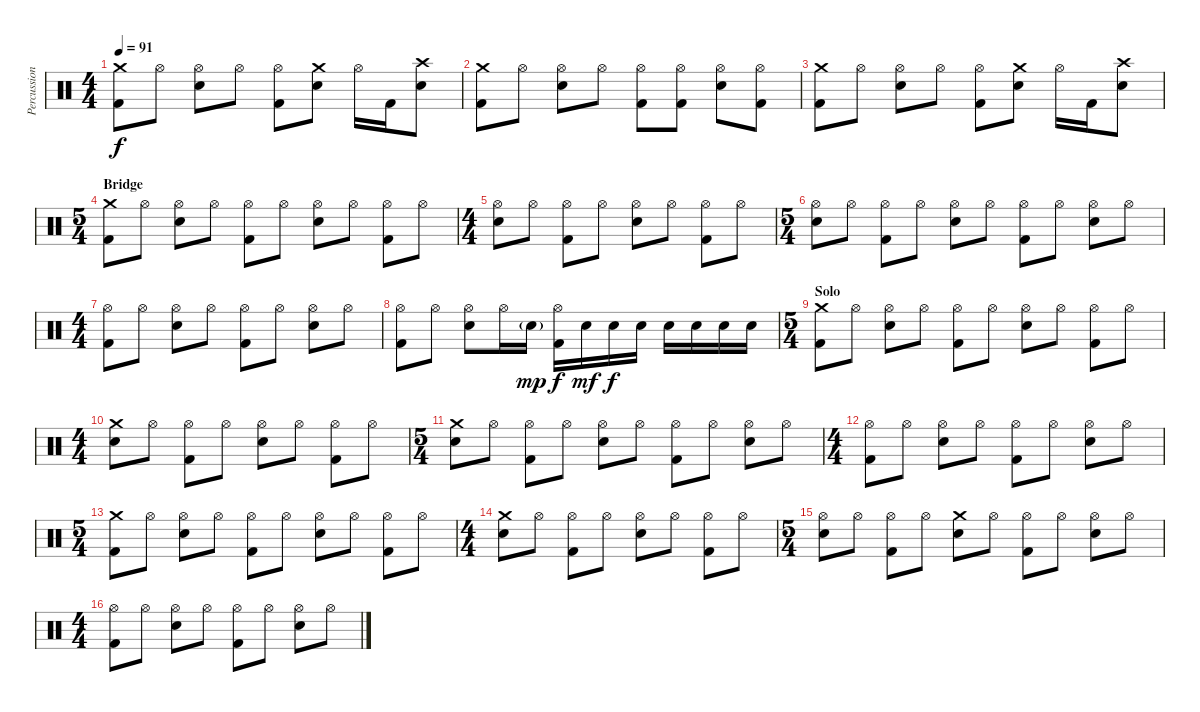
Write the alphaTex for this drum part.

\track ("Percussion" "Percussion") {instrument percussion}
\staff {score}
\articulation defaults
\ts (4 4)
\tempo 91
\clef neutral
\ks c
("Crash medium (hit)" "Kick (hit) 2").8{dy f} "Hi-Hat (open)".8 ("Hi-Hat (open)" "Electric Snare (hit)").8 "Hi-Hat (open)".8 ("Hi-Hat (open)" "Kick (hit) 2").8 ("Crash medium (hit)" "Electric Snare (hit)").8 "Hi-Hat (open)".16 "Kick (hit) 2".16 ("Crash high (hit)" "Electric Snare (hit)").8 |
("Crash medium (hit)" "Kick (hit) 2").8 "Hi-Hat (open)".8 ("Hi-Hat (open)" "Electric Snare (hit)").8 "Hi-Hat (open)".8 ("Hi-Hat (open)" "Kick (hit) 2").8 ("Hi-Hat (open)" "Kick (hit) 2").8 ("Hi-Hat (open)" "Electric Snare (hit)").8 ("Hi-Hat (open)" "Kick (hit) 2").8 |
("Crash medium (hit)" "Kick (hit) 2").8 "Hi-Hat (open)".8 ("Hi-Hat (open)" "Electric Snare (hit)").8 "Hi-Hat (open)".8 ("Hi-Hat (open)" "Kick (hit) 2").8 ("Crash medium (hit)" "Electric Snare (hit)").8 "Hi-Hat (open)".16 "Kick (hit) 2".16 ("Crash high (hit)" "Electric Snare (hit)").8 |
\ts (5 4)
\section ("" "Bridge")
("Crash medium (hit)" "Kick (hit) 2").8 "Hi-Hat (open)".8 ("Hi-Hat (open)" "Electric Snare (hit)").8 "Hi-Hat (open)".8 ("Hi-Hat (open)" "Kick (hit) 2").8 "Hi-Hat (open)".8 ("Hi-Hat (open)" "Electric Snare (hit)").8 "Hi-Hat (open)".8 ("Hi-Hat (open)" "Kick (hit) 2").8 "Hi-Hat (open)".8 |
\ts (4 4)
("Hi-Hat (open)" "Electric Snare (hit)").8 "Hi-Hat (open)".8 ("Hi-Hat (open)" "Kick (hit) 2").8 "Hi-Hat (open)".8 ("Hi-Hat (open)" "Electric Snare (hit)").8 "Hi-Hat (open)".8 ("Hi-Hat (open)" "Kick (hit) 2").8 "Hi-Hat (open)".8 |
\ts (5 4)
("Hi-Hat (open)" "Electric Snare (hit)").8 "Hi-Hat (open)".8 ("Hi-Hat (open)" "Kick (hit) 2").8 "Hi-Hat (open)".8 ("Hi-Hat (open)" "Electric Snare (hit)").8 "Hi-Hat (open)".8 ("Hi-Hat (open)" "Kick (hit) 2").8 "Hi-Hat (open)".8 ("Hi-Hat (open)" "Electric Snare (hit)").8 "Hi-Hat (open)".8 |
\ts (4 4)
("Hi-Hat (open)" "Kick (hit) 2").8 "Hi-Hat (open)".8 ("Hi-Hat (open)" "Electric Snare (hit)").8 "Hi-Hat (open)".8 ("Hi-Hat (open)" "Kick (hit) 2").8 "Hi-Hat (open)".8 ("Hi-Hat (open)" "Electric Snare (hit)").8 "Hi-Hat (open)".8 |
("Hi-Hat (open)" "Kick (hit) 2").8 "Hi-Hat (open)".8 ("Hi-Hat (open)" "Electric Snare (hit)").8 "Hi-Hat (open)".16 "Electric Snare (hit)"{g}.16{dy mp} ("Hi-Hat (open)" "Kick (hit) 2").16{dy f} "Electric Snare (hit)".16{dy mf} "Electric Snare (hit)".16{dy f} "Electric Snare (hit)".16 "Electric Snare (hit)".16 "Electric Snare (hit)".16 "Electric Snare (hit)".16 "Electric Snare (hit)".16 |
\ts (5 4)
\section ("" "Solo")
("Crash medium (hit)" "Kick (hit) 2").8 "Hi-Hat (open)".8 ("Hi-Hat (open)" "Electric Snare (hit)").8 "Hi-Hat (open)".8 ("Hi-Hat (open)" "Kick (hit) 2").8 "Hi-Hat (open)".8 ("Hi-Hat (open)" "Electric Snare (hit)").8 "Hi-Hat (open)".8 ("Hi-Hat (open)" "Kick (hit) 2").8 "Hi-Hat (open)".8 |
\ts (4 4)
("Crash medium (hit)" "Electric Snare (hit)").8 "Hi-Hat (open)".8 ("Hi-Hat (open)" "Kick (hit) 2").8 "Hi-Hat (open)".8 ("Hi-Hat (open)" "Electric Snare (hit)").8 "Hi-Hat (open)".8 ("Hi-Hat (open)" "Kick (hit) 2").8 "Hi-Hat (open)".8 |
\ts (5 4)
("Crash medium (hit)" "Electric Snare (hit)").8 "Hi-Hat (open)".8 ("Hi-Hat (open)" "Kick (hit) 2").8 "Hi-Hat (open)".8 ("Hi-Hat (open)" "Electric Snare (hit)").8 "Hi-Hat (open)".8 ("Hi-Hat (open)" "Kick (hit) 2").8 "Hi-Hat (open)".8 ("Hi-Hat (open)" "Electric Snare (hit)").8 "Hi-Hat (open)".8 |
\ts (4 4)
("Hi-Hat (open)" "Kick (hit) 2").8 "Hi-Hat (open)".8 ("Hi-Hat (open)" "Electric Snare (hit)").8 "Hi-Hat (open)".8 ("Hi-Hat (open)" "Kick (hit) 2").8 "Hi-Hat (open)".8 ("Hi-Hat (open)" "Electric Snare (hit)").8 "Hi-Hat (open)".8 |
\ts (5 4)
("Crash medium (hit)" "Kick (hit) 2").8 "Hi-Hat (open)".8 ("Hi-Hat (open)" "Electric Snare (hit)").8 "Hi-Hat (open)".8 ("Hi-Hat (open)" "Kick (hit) 2").8 "Hi-Hat (open)".8 ("Hi-Hat (open)" "Electric Snare (hit)").8 "Hi-Hat (open)".8 ("Hi-Hat (open)" "Kick (hit) 2").8 "Hi-Hat (open)".8 |
\ts (4 4)
("Crash medium (hit)" "Electric Snare (hit)").8 "Hi-Hat (open)".8 ("Hi-Hat (open)" "Kick (hit) 2").8 "Hi-Hat (open)".8 ("Hi-Hat (open)" "Electric Snare (hit)").8 "Hi-Hat (open)".8 ("Hi-Hat (open)" "Kick (hit) 2").8 "Hi-Hat (open)".8 |
\ts (5 4)
("Hi-Hat (open)" "Electric Snare (hit)").8 "Hi-Hat (open)".8 ("Hi-Hat (open)" "Kick (hit) 2").8 "Hi-Hat (open)".8 ("Crash medium (hit)" "Electric Snare (hit)").8 "Hi-Hat (open)".8 ("Hi-Hat (open)" "Kick (hit) 2").8 "Hi-Hat (open)".8 ("Hi-Hat (open)" "Electric Snare (hit)").8 "Hi-Hat (open)".8 |
\ts (4 4)
("Hi-Hat (open)" "Kick (hit) 2").8 "Hi-Hat (open)".8 ("Hi-Hat (open)" "Electric Snare (hit)").8 "Hi-Hat (open)".8 ("Hi-Hat (open)" "Kick (hit) 2").8 "Hi-Hat (open)".8 ("Hi-Hat (open)" "Electric Snare (hit)").8 "Hi-Hat (open)".8
